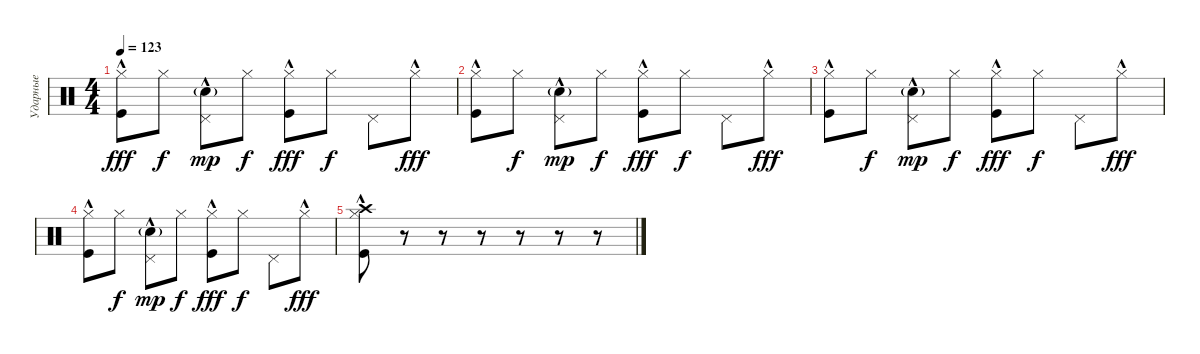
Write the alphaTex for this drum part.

\track ("Ударные" "Ударные") {instrument percussion}
\staff {score}
\articulation defaults
\ts (4 4)
\tempo 123
\clef neutral
\ks c
("Kick (hit)" "Hi-Hat (closed)"{hac}).8{dy fff} "Hi-Hat (closed)".8{dy f} ("Pedal Hi-Hat (hit)"{hac} "Electric Snare (hit)"{g}).8{dy mp} "Hi-Hat (closed)".8{dy f} ("Kick (hit)" "Hi-Hat (closed)"{hac}).8{dy fff} "Hi-Hat (closed)".8{dy f} "Pedal Hi-Hat (hit)".8 "Hi-Hat (closed)"{hac}.8{dy fff} |
("Kick (hit)" "Hi-Hat (closed)"{hac}).8 "Hi-Hat (closed)".8{dy f} ("Pedal Hi-Hat (hit)"{hac} "Electric Snare (hit)"{g}).8{dy mp} "Hi-Hat (closed)".8{dy f} ("Kick (hit)" "Hi-Hat (closed)"{hac}).8{dy fff} "Hi-Hat (closed)".8{dy f} "Pedal Hi-Hat (hit)".8 "Hi-Hat (closed)"{hac}.8{dy fff} |
("Kick (hit)" "Hi-Hat (closed)"{hac}).8 "Hi-Hat (closed)".8{dy f} ("Pedal Hi-Hat (hit)"{hac} "Electric Snare (hit)"{g}).8{dy mp} "Hi-Hat (closed)".8{dy f} ("Kick (hit)" "Hi-Hat (closed)"{hac}).8{dy fff} "Hi-Hat (closed)".8{dy f} "Pedal Hi-Hat (hit)".8 "Hi-Hat (closed)"{hac}.8{dy fff} |
("Kick (hit)" "Hi-Hat (closed)"{hac}).8 "Hi-Hat (closed)".8{dy f} ("Pedal Hi-Hat (hit)"{hac} "Electric Snare (hit)"{g}).8{dy mp} "Hi-Hat (closed)".8{dy f} ("Kick (hit)" "Hi-Hat (closed)"{hac}).8{dy fff} "Hi-Hat (closed)".8{dy f} "Pedal Hi-Hat (hit)".8 "Hi-Hat (closed)"{hac}.8{dy fff} |
("Crash high (hit)" "Kick (hit)" "Hi-Hat (closed)"{hac}).8 r.8 r.8 r.8 r.8 r.8 r.8
